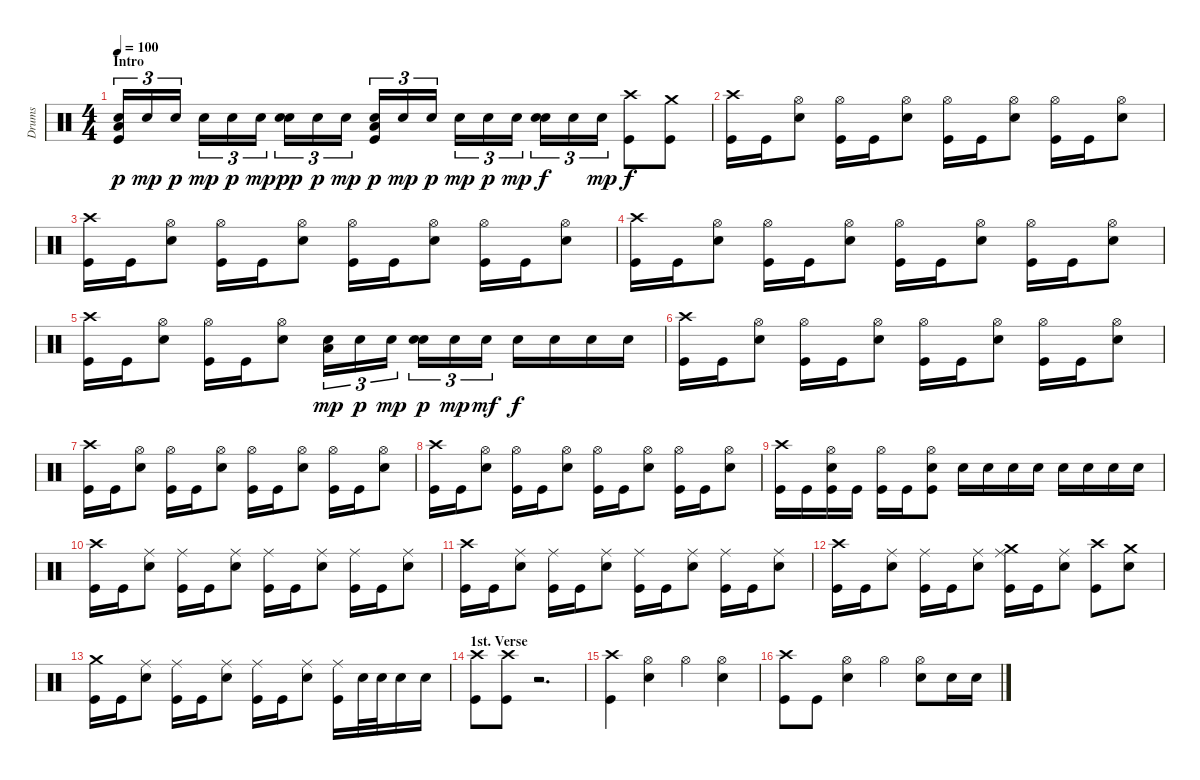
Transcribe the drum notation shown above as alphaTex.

\track ("Drums" "Drums") {instrument percussion}
\staff {score}
\articulation defaults
\ts (4 4)
\section ("" "Intro")
\tempo 100
\clef neutral
\ks c
("Low Tom (hit)" "Snare (hit) 2" "Kick (hit)").16{tu (3 2) dy p} "Snare (hit) 2".16{tu (3 2) dy mp} "Snare (hit) 2".16{tu (3 2) dy p} "Snare (hit) 2".16{tu (3 2) dy mp} "Snare (hit) 2".16{tu (3 2) dy p} "Snare (hit) 2".16{tu (3 2) dy mp} ("Electric Snare (hit)" "Snare (hit) 2").16{tu (3 2) dy pp} "Snare (hit) 2".16{tu (3 2) dy p} "Snare (hit) 2".16{tu (3 2) dy mp} ("Low Tom (hit)" "Snare (hit) 2" "Kick (hit)").16{tu (3 2) dy p} "Snare (hit) 2".16{tu (3 2) dy mp} "Snare (hit) 2".16{tu (3 2) dy p} "Snare (hit) 2".16{tu (3 2) dy mp} "Snare (hit) 2".16{tu (3 2) dy p} "Snare (hit) 2".16{tu (3 2) dy mp} ("Electric Snare (hit)" "Snare (hit) 2").16{tu (3 2) dy f} "Snare (hit) 2".16{tu (3 2)} "Snare (hit) 2".16{tu (3 2) dy mp} ("Crash high (hit)" "Kick (hit)").8{dy f} ("Crash medium (hit)" "Kick (hit)").8 |
("Crash high (hit)" "Kick (hit)").16 "Kick (hit)".16 ("Hi-Hat (open)" "Electric Snare (hit)").8 ("Hi-Hat (open)" "Kick (hit)").16 "Kick (hit)".16 ("Hi-Hat (open)" "Electric Snare (hit)").8 ("Hi-Hat (open)" "Kick (hit)").16 "Kick (hit)".16 ("Hi-Hat (open)" "Electric Snare (hit)").8 ("Hi-Hat (open)" "Kick (hit)").16 "Kick (hit)".16 ("Hi-Hat (open)" "Electric Snare (hit)").8 |
("Crash high (hit)" "Kick (hit)").16 "Kick (hit)".16 ("Hi-Hat (open)" "Electric Snare (hit)").8 ("Hi-Hat (open)" "Kick (hit)").16 "Kick (hit)".16 ("Hi-Hat (open)" "Electric Snare (hit)").8 ("Hi-Hat (open)" "Kick (hit)").16 "Kick (hit)".16 ("Hi-Hat (open)" "Electric Snare (hit)").8 ("Hi-Hat (open)" "Kick (hit)").16 "Kick (hit)".16 ("Hi-Hat (open)" "Electric Snare (hit)").8 |
("Crash high (hit)" "Kick (hit)").16 "Kick (hit)".16 ("Hi-Hat (open)" "Electric Snare (hit)").8 ("Hi-Hat (open)" "Kick (hit)").16 "Kick (hit)".16 ("Hi-Hat (open)" "Electric Snare (hit)").8 ("Hi-Hat (open)" "Kick (hit)").16 "Kick (hit)".16 ("Hi-Hat (open)" "Electric Snare (hit)").8 ("Hi-Hat (open)" "Kick (hit)").16 "Kick (hit)".16 ("Hi-Hat (open)" "Electric Snare (hit)").8 |
("Crash high (hit)" "Kick (hit)").16 "Kick (hit)".16 ("Hi-Hat (open)" "Electric Snare (hit)").8 ("Hi-Hat (open)" "Kick (hit)").16 "Kick (hit)".16 ("Hi-Hat (open)" "Electric Snare (hit)").8 ("Low Tom (hit)" "Snare (hit) 2").16{tu (3 2) dy mp} "Snare (hit) 2".16{tu (3 2) dy p} "Snare (hit) 2".16{tu (3 2) dy mp} ("Electric Snare (hit)" "Snare (hit) 2").16{tu (3 2) dy p} "Snare (hit) 2".16{tu (3 2) dy mp} "Snare (hit) 2".16{tu (3 2) dy mf} "Electric Snare (hit)".16{dy f} "Electric Snare (hit)".16 "Electric Snare (hit)".16 "Electric Snare (hit)".16 |
("Crash high (hit)" "Kick (hit)").16 "Kick (hit)".16 ("Hi-Hat (open)" "Electric Snare (hit)").8 ("Hi-Hat (open)" "Kick (hit)").16 "Kick (hit)".16 ("Hi-Hat (open)" "Electric Snare (hit)").8 ("Hi-Hat (open)" "Kick (hit)").16 "Kick (hit)".16 ("Hi-Hat (open)" "Electric Snare (hit)").8 ("Hi-Hat (open)" "Kick (hit)").16 "Kick (hit)".16 ("Hi-Hat (open)" "Electric Snare (hit)").8 |
("Crash high (hit)" "Kick (hit)").16 "Kick (hit)".16 ("Hi-Hat (open)" "Electric Snare (hit)").8 ("Hi-Hat (open)" "Kick (hit)").16 "Kick (hit)".16 ("Hi-Hat (open)" "Electric Snare (hit)").8 ("Hi-Hat (open)" "Kick (hit)").16 "Kick (hit)".16 ("Hi-Hat (open)" "Electric Snare (hit)").8 ("Hi-Hat (open)" "Kick (hit)").16 "Kick (hit)".16 ("Hi-Hat (open)" "Electric Snare (hit)").8 |
("Crash high (hit)" "Kick (hit)").16 "Kick (hit)".16 ("Hi-Hat (open)" "Electric Snare (hit)").8 ("Hi-Hat (open)" "Kick (hit)").16 "Kick (hit)".16 ("Hi-Hat (open)" "Electric Snare (hit)").8 ("Hi-Hat (open)" "Kick (hit)").16 "Kick (hit)".16 ("Hi-Hat (open)" "Electric Snare (hit)").8 ("Hi-Hat (open)" "Kick (hit)").16 "Kick (hit)".16 ("Hi-Hat (open)" "Electric Snare (hit)").8 |
("Crash high (hit)" "Kick (hit)").16 "Kick (hit)".16 ("Hi-Hat (open)" "Electric Snare (hit)" "Kick (hit)").16 "Kick (hit)".16 ("Hi-Hat (open)" "Kick (hit)").16 "Kick (hit)".16 ("Hi-Hat (open)" "Electric Snare (hit)" "Kick (hit)").8 "Electric Snare (hit)".16 "Electric Snare (hit)".16 "Electric Snare (hit)".16 "Electric Snare (hit)".16 "Electric Snare (hit)".16 "Electric Snare (hit)".16 "Electric Snare (hit)".16 "Electric Snare (hit)".16 |
("Crash high (hit)" "Kick (hit)").16 "Kick (hit)".16 ("Ride (middle)" "Electric Snare (hit)").8 ("Ride (middle)" "Kick (hit)").16 "Kick (hit)".16 ("Ride (middle)" "Electric Snare (hit)").8 ("Ride (middle)" "Kick (hit)").16 "Kick (hit)".16 ("Ride (middle)" "Electric Snare (hit)").8 ("Ride (middle)" "Kick (hit)").16 "Kick (hit)".16 ("Ride (middle)" "Electric Snare (hit)").8 |
("Crash high (hit)" "Kick (hit)").16 "Kick (hit)".16 ("Ride (middle)" "Electric Snare (hit)").8 ("Ride (middle)" "Kick (hit)").16 "Kick (hit)".16 ("Ride (middle)" "Electric Snare (hit)").8 ("Ride (middle)" "Kick (hit)").16 "Kick (hit)".16 ("Ride (middle)" "Electric Snare (hit)").8 ("Ride (middle)" "Kick (hit)").16 "Kick (hit)".16 ("Ride (middle)" "Electric Snare (hit)").8 |
("Crash high (hit)" "Kick (hit)").16 "Kick (hit)".16 ("Ride (middle)" "Electric Snare (hit)").8 ("Ride (middle)" "Kick (hit)").16 "Kick (hit)".16 ("Ride (middle)" "Electric Snare (hit)").8 ("Crash medium (hit)" "Ride (middle)" "Kick (hit)").16 "Kick (hit)".16 ("Ride (middle)" "Electric Snare (hit)").8 ("Crash high (hit)" "Kick (hit)").8 ("Crash medium (hit)" "Electric Snare (hit)").8 |
("Crash medium (hit)" "Kick (hit)").16 "Kick (hit)".16 ("Ride (middle)" "Electric Snare (hit)").8 ("Ride (middle)" "Kick (hit)").16 "Kick (hit)".16 ("Ride (middle)" "Electric Snare (hit)").8 ("Ride (middle)" "Kick (hit)").16 "Kick (hit)".16 ("Ride (middle)" "Electric Snare (hit)").8 ("Ride (middle)" "Kick (hit)").16 "Electric Snare (hit)".32 "Electric Snare (hit)".32 "Electric Snare (hit)".16 "Electric Snare (hit)".16 |
\section ("" "1st. Verse")
("Crash high (hit)" "Kick (hit)").8 ("Crash high (hit)" "Kick (hit)").8 r.2{d} |
("Crash high (hit)" "Kick (hit)").4 ("Hi-Hat (open)" "Electric Snare (hit)").4 "Hi-Hat (open)".4 ("Hi-Hat (open)" "Electric Snare (hit)").4 |
("Crash high (hit)" "Kick (hit)").8 "Kick (hit)".8 ("Hi-Hat (open)" "Electric Snare (hit)").4 "Hi-Hat (open)".4 ("Hi-Hat (open)" "Electric Snare (hit)").8 "Electric Snare (hit)".16 "Electric Snare (hit)".16
